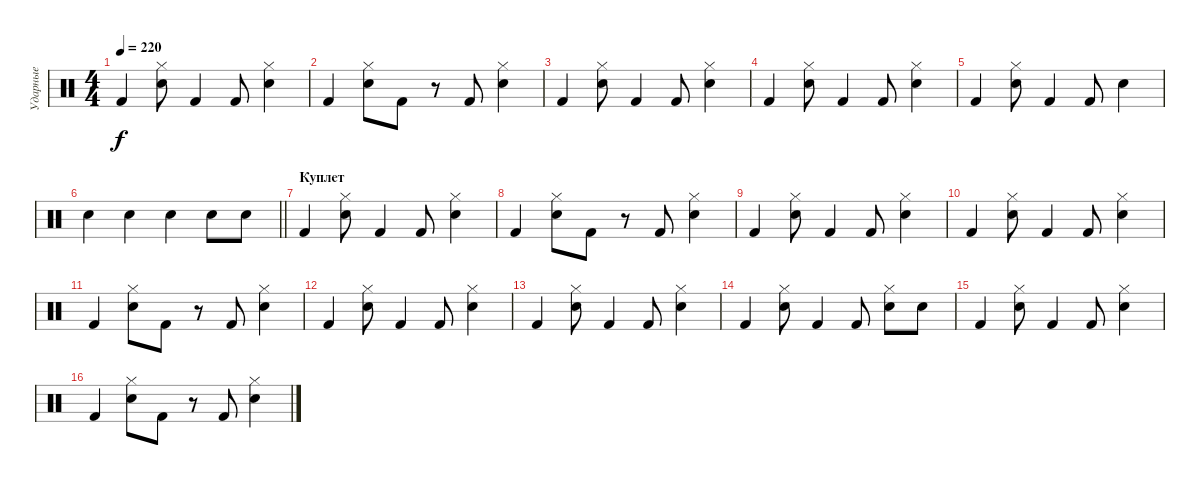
\track ("Ударные" "Ударные") {instrument percussion}
\staff {score}
\articulation defaults
\ts (4 4)
\tempo 220
\clef neutral
\ks c "Kick (hit) 2".4{dy f}
("Hi-Hat (closed)" "Snare (hit) 2").8 "Kick (hit) 2".4 "Kick (hit) 2".8 ("Hi-Hat (closed)" "Snare (hit) 2").4 |
"Kick (hit) 2".4 ("Hi-Hat (closed)" "Snare (hit) 2").8 "Kick (hit) 2".8 r.8 "Kick (hit) 2".8 ("Hi-Hat (closed)" "Snare (hit) 2").4 |
"Kick (hit) 2".4 ("Hi-Hat (closed)" "Snare (hit) 2").8 "Kick (hit) 2".4 "Kick (hit) 2".8 ("Hi-Hat (closed)" "Snare (hit) 2").4 |
"Kick (hit) 2".4 ("Hi-Hat (closed)" "Snare (hit) 2").8 "Kick (hit) 2".4 "Kick (hit) 2".8 ("Hi-Hat (closed)" "Snare (hit) 2").4 |
"Kick (hit) 2".4 ("Hi-Hat (closed)" "Snare (hit) 2").8 "Kick (hit) 2".4 "Kick (hit) 2".8 "Snare (hit) 2".4 |
\barLineRight lightlight "Snare (hit) 2".4 "Snare (hit) 2".4 "Snare (hit) 2".4 "Snare (hit) 2".8 "Snare (hit) 2".8
|
\section ("" "Куплет")
"Kick (hit) 2".4 ("Hi-Hat (closed)" "Snare (hit) 2").8 "Kick (hit) 2".4 "Kick (hit) 2".8 ("Hi-Hat (closed)" "Snare (hit) 2").4 |
"Kick (hit) 2".4 ("Hi-Hat (closed)" "Snare (hit) 2").8 "Kick (hit) 2".8 r.8 "Kick (hit) 2".8 ("Hi-Hat (closed)" "Snare (hit) 2").4 |
"Kick (hit) 2".4 ("Hi-Hat (closed)" "Snare (hit) 2").8 "Kick (hit) 2".4 "Kick (hit) 2".8 ("Hi-Hat (closed)" "Snare (hit) 2").4 |
"Kick (hit) 2".4 ("Hi-Hat (closed)" "Snare (hit) 2").8 "Kick (hit) 2".4 "Kick (hit) 2".8 ("Hi-Hat (closed)" "Snare (hit) 2").4 |
"Kick (hit) 2".4 ("Hi-Hat (closed)" "Snare (hit) 2").8 "Kick (hit) 2".8 r.8 "Kick (hit) 2".8 ("Hi-Hat (closed)" "Snare (hit) 2").4 |
"Kick (hit) 2".4 ("Hi-Hat (closed)" "Snare (hit) 2").8 "Kick (hit) 2".4 "Kick (hit) 2".8 ("Hi-Hat (closed)" "Snare (hit) 2").4 |
"Kick (hit) 2".4 ("Hi-Hat (closed)" "Snare (hit) 2").8 "Kick (hit) 2".4 "Kick (hit) 2".8 ("Hi-Hat (closed)" "Snare (hit) 2").4 |
"Kick (hit) 2".4 ("Hi-Hat (closed)" "Snare (hit) 2").8 "Kick (hit) 2".4 "Kick (hit) 2".8 ("Hi-Hat (closed)" "Snare (hit) 2").8 "Snare (hit) 2".8 |
"Kick (hit) 2".4 ("Hi-Hat (closed)" "Snare (hit) 2").8 "Kick (hit) 2".4 "Kick (hit) 2".8 ("Hi-Hat (closed)" "Snare (hit) 2").4 |
"Kick (hit) 2".4 ("Hi-Hat (closed)" "Snare (hit) 2").8 "Kick (hit) 2".8 r.8 "Kick (hit) 2".8 ("Hi-Hat (closed)" "Snare (hit) 2").4
